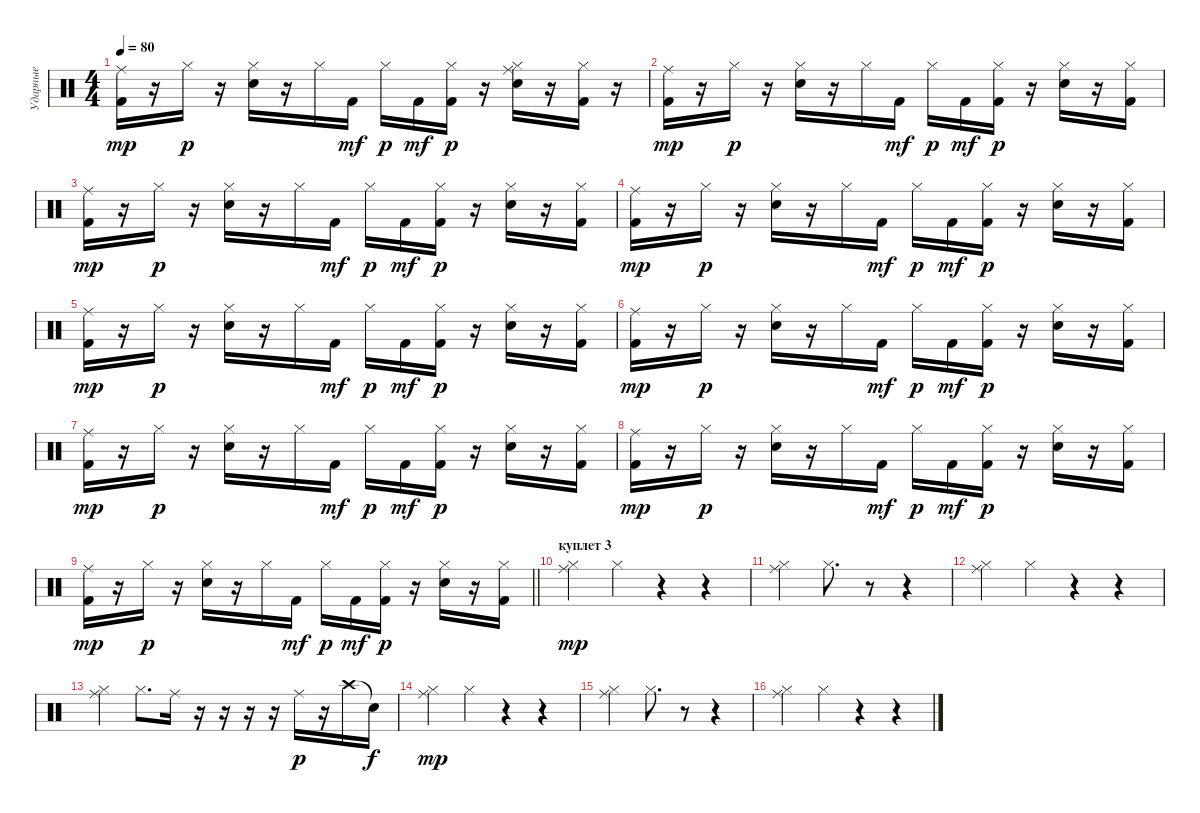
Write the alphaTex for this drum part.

\track ("Ударные" "Ударные") {instrument percussion}
\staff {score}
\articulation defaults
\ts (4 4)
\tempo 80
\clef neutral
\ks c
("Kick (hit) 2" "Ride (middle)").16{dy mp} r.16 "Hi-Hat (closed)".16{dy p} r.16 ("Electric Snare (hit)" "Hi-Hat (closed)").16 r.16 "Hi-Hat (closed)".16 "Kick (hit) 2".16{dy mf} "Hi-Hat (closed)".16{dy p} "Kick (hit) 2".16{dy mf} ("Kick (hit) 2" "Hi-Hat (closed)").16{dy p} r.16 ("Electric Snare (hit)" "Ride (middle)" "Hi-Hat (closed)").16 r.16 ("Kick (hit) 2" "Hi-Hat (closed)").16 r.16 |
("Kick (hit) 2" "Ride (middle)").16{dy mp} r.16 "Hi-Hat (closed)".16{dy p} r.16 ("Electric Snare (hit)" "Hi-Hat (closed)").16 r.16 "Hi-Hat (closed)".16 "Kick (hit) 2".16{dy mf} "Hi-Hat (closed)".16{dy p} "Kick (hit) 2".16{dy mf} ("Kick (hit) 2" "Hi-Hat (closed)").16{dy p} r.16 ("Electric Snare (hit)" "Hi-Hat (closed)").16 r.16 ("Kick (hit) 2" "Hi-Hat (closed)").16 |
("Kick (hit) 2" "Ride (middle)").16{dy mp} r.16 "Hi-Hat (closed)".16{dy p} r.16 ("Electric Snare (hit)" "Hi-Hat (closed)").16 r.16 "Hi-Hat (closed)".16 "Kick (hit) 2".16{dy mf} "Hi-Hat (closed)".16{dy p} "Kick (hit) 2".16{dy mf} ("Kick (hit) 2" "Hi-Hat (closed)").16{dy p} r.16 ("Electric Snare (hit)" "Hi-Hat (closed)").16 r.16 ("Kick (hit) 2" "Hi-Hat (closed)").16 |
("Kick (hit) 2" "Ride (middle)").16{dy mp} r.16 "Hi-Hat (closed)".16{dy p} r.16 ("Electric Snare (hit)" "Hi-Hat (closed)").16 r.16 "Hi-Hat (closed)".16 "Kick (hit) 2".16{dy mf} "Hi-Hat (closed)".16{dy p} "Kick (hit) 2".16{dy mf} ("Kick (hit) 2" "Hi-Hat (closed)").16{dy p} r.16 ("Electric Snare (hit)" "Hi-Hat (closed)").16 r.16 ("Kick (hit) 2" "Hi-Hat (closed)").16 |
("Kick (hit) 2" "Ride (middle)").16{dy mp} r.16 "Hi-Hat (closed)".16{dy p} r.16 ("Electric Snare (hit)" "Hi-Hat (closed)").16 r.16 "Hi-Hat (closed)".16 "Kick (hit) 2".16{dy mf} "Hi-Hat (closed)".16{dy p} "Kick (hit) 2".16{dy mf} ("Kick (hit) 2" "Hi-Hat (closed)").16{dy p} r.16 ("Electric Snare (hit)" "Hi-Hat (closed)").16 r.16 ("Kick (hit) 2" "Hi-Hat (closed)").16 |
("Kick (hit) 2" "Ride (middle)").16{dy mp} r.16 "Hi-Hat (closed)".16{dy p} r.16 ("Electric Snare (hit)" "Hi-Hat (closed)").16 r.16 "Hi-Hat (closed)".16 "Kick (hit) 2".16{dy mf} "Hi-Hat (closed)".16{dy p} "Kick (hit) 2".16{dy mf} ("Kick (hit) 2" "Hi-Hat (closed)").16{dy p} r.16 ("Electric Snare (hit)" "Hi-Hat (closed)").16 r.16 ("Kick (hit) 2" "Hi-Hat (closed)").16 |
("Kick (hit) 2" "Ride (middle)").16{dy mp} r.16 "Hi-Hat (closed)".16{dy p} r.16 ("Electric Snare (hit)" "Hi-Hat (closed)").16 r.16 "Hi-Hat (closed)".16 "Kick (hit) 2".16{dy mf} "Hi-Hat (closed)".16{dy p} "Kick (hit) 2".16{dy mf} ("Kick (hit) 2" "Hi-Hat (closed)").16{dy p} r.16 ("Electric Snare (hit)" "Hi-Hat (closed)").16 r.16 ("Kick (hit) 2" "Hi-Hat (closed)").16 |
("Kick (hit) 2" "Ride (middle)").16{dy mp} r.16 "Hi-Hat (closed)".16{dy p} r.16 ("Electric Snare (hit)" "Hi-Hat (closed)").16 r.16 "Hi-Hat (closed)".16 "Kick (hit) 2".16{dy mf} "Hi-Hat (closed)".16{dy p} "Kick (hit) 2".16{dy mf} ("Kick (hit) 2" "Hi-Hat (closed)").16{dy p} r.16 ("Electric Snare (hit)" "Hi-Hat (closed)").16 r.16 ("Kick (hit) 2" "Hi-Hat (closed)").16 |
\barLineRight lightlight
("Kick (hit) 2" "Ride (middle)").16{dy mp} r.16 "Hi-Hat (closed)".16{dy p} r.16 ("Electric Snare (hit)" "Hi-Hat (closed)").16 r.16 "Hi-Hat (closed)".16 "Kick (hit) 2".16{dy mf} "Hi-Hat (closed)".16{dy p} "Kick (hit) 2".16{dy mf} ("Kick (hit) 2" "Hi-Hat (closed)").16{dy p} r.16 ("Electric Snare (hit)" "Hi-Hat (closed)").16 r.16 ("Kick (hit) 2" "Hi-Hat (closed)").16 |
\section ("" "куплет 3")
("Ride (middle)" "Hi-Hat (closed)").4{dy mp} "Hi-Hat (closed)".4 r.4 r.4 |
("Ride (middle)" "Hi-Hat (closed)").4 "Hi-Hat (closed)".8{d} r.8 r.4 |
("Ride (middle)" "Hi-Hat (closed)").4 "Hi-Hat (closed)".4 r.4 r.4 |
("Ride (middle)" "Hi-Hat (closed)").4 "Hi-Hat (closed)".8{d} "Ride (middle)".16 r.16 r.16 r.16 r.16 "Ride (middle)".16{dy p} r.16 "Crash high (hit)".16 "Snare (hit)"{t}.16{dy f} |
("Ride (middle)" "Hi-Hat (closed)").4{dy mp} "Hi-Hat (closed)".4 r.4 r.4 |
("Ride (middle)" "Hi-Hat (closed)").4 "Hi-Hat (closed)".8{d} r.8 r.4 |
("Ride (middle)" "Hi-Hat (closed)").4 "Hi-Hat (closed)".4 r.4 r.4
